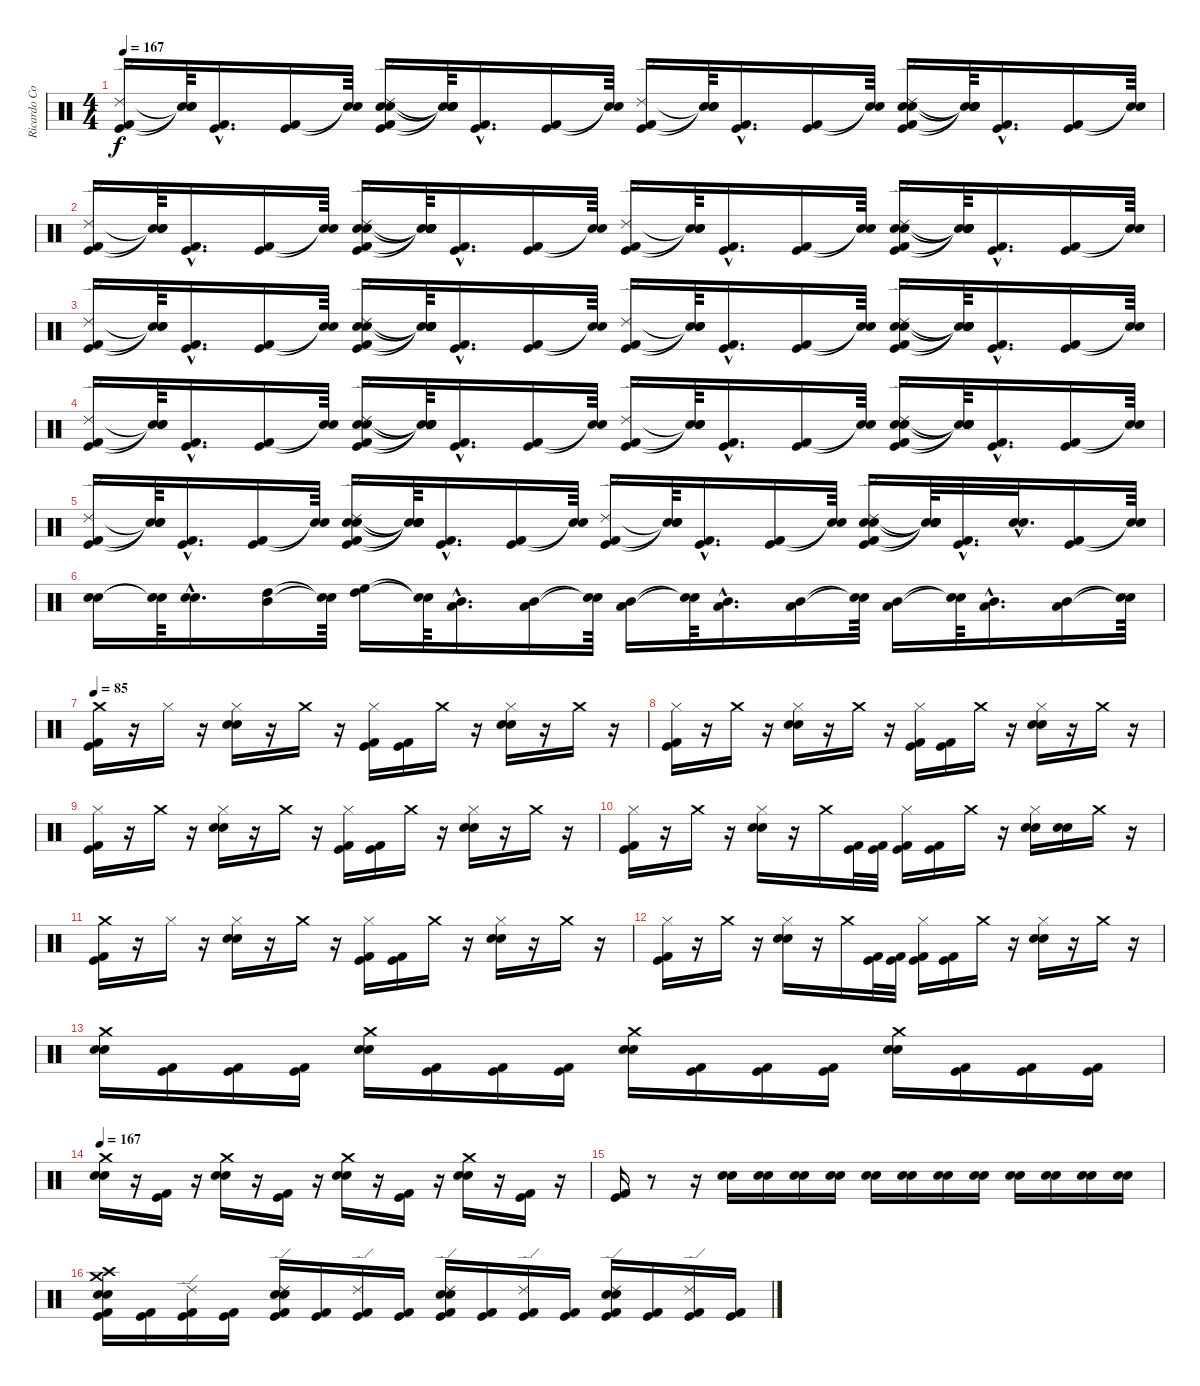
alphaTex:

\track ("Ricardo Confessori" "Ricardo Co") {instrument percussion}
\staff {score}
\articulation defaults
\ts (4 4)
\tempo 167
\clef neutral
\ks c
("Ride (edge) 2" "Kick (hit) 2" "Kick (hit)").16{dy f} ("Snare (hit)"{t} "Snare (hit)"{t} "Snare (hit)"{t}).64 ("Kick (hit) 2"{hac} "Kick (hit)"{hac}).16{d} ("Kick (hit) 2" "Kick (hit)").16 ("Snare (hit)"{t} "Snare (hit)"{t}).64 ("Ride (edge) 2" "Electric Snare (hit)" "Snare (hit) 2" "Kick (hit) 2" "Kick (hit)").16 ("Snare (hit)"{t} "Snare (hit)"{t} "Snare (hit)"{t} "Snare (hit)"{t} "Snare (hit)"{t}).64 ("Kick (hit) 2"{hac} "Kick (hit)"{hac}).16{d} ("Kick (hit) 2" "Kick (hit)").16 ("Snare (hit)"{t} "Snare (hit)"{t}).64 ("Ride (edge) 2" "Kick (hit) 2" "Kick (hit)").16 ("Snare (hit)"{t} "Snare (hit)"{t} "Snare (hit)"{t}).64 ("Kick (hit) 2"{hac} "Kick (hit)"{hac}).16{d} ("Kick (hit) 2" "Kick (hit)").16 ("Snare (hit)"{t} "Snare (hit)"{t}).64 ("Ride (edge) 2" "Electric Snare (hit)" "Snare (hit) 2" "Kick (hit) 2" "Kick (hit)").16 ("Snare (hit)"{t} "Snare (hit)"{t} "Snare (hit)"{t} "Snare (hit)"{t} "Snare (hit)"{t}).64 ("Kick (hit) 2"{hac} "Kick (hit)"{hac}).16{d} ("Kick (hit) 2" "Kick (hit)").16 ("Snare (hit)"{t} "Snare (hit)"{t}).64 |
("Ride (edge) 2" "Kick (hit) 2" "Kick (hit)").16 ("Snare (hit)"{t} "Snare (hit)"{t} "Snare (hit)"{t}).64 ("Kick (hit) 2"{hac} "Kick (hit)"{hac}).16{d} ("Kick (hit) 2" "Kick (hit)").16 ("Snare (hit)"{t} "Snare (hit)"{t}).64 ("Ride (edge) 2" "Electric Snare (hit)" "Snare (hit) 2" "Kick (hit) 2" "Kick (hit)").16 ("Snare (hit)"{t} "Snare (hit)"{t} "Snare (hit)"{t} "Snare (hit)"{t} "Snare (hit)"{t}).64 ("Kick (hit) 2"{hac} "Kick (hit)"{hac}).16{d} ("Kick (hit) 2" "Kick (hit)").16 ("Snare (hit)"{t} "Snare (hit)"{t}).64 ("Ride (edge) 2" "Kick (hit) 2" "Kick (hit)").16 ("Snare (hit)"{t} "Snare (hit)"{t} "Snare (hit)"{t}).64 ("Kick (hit) 2"{hac} "Kick (hit)"{hac}).16{d} ("Kick (hit) 2" "Kick (hit)").16 ("Snare (hit)"{t} "Snare (hit)"{t}).64 ("Ride (edge) 2" "Electric Snare (hit)" "Snare (hit) 2" "Kick (hit) 2" "Kick (hit)").16 ("Snare (hit)"{t} "Snare (hit)"{t} "Snare (hit)"{t} "Snare (hit)"{t} "Snare (hit)"{t}).64 ("Kick (hit) 2"{hac} "Kick (hit)"{hac}).16{d} ("Kick (hit) 2" "Kick (hit)").16 ("Snare (hit)"{t} "Snare (hit)"{t}).64 |
("Ride (edge) 2" "Kick (hit) 2" "Kick (hit)").16 ("Snare (hit)"{t} "Snare (hit)"{t} "Snare (hit)"{t}).64 ("Kick (hit) 2"{hac} "Kick (hit)"{hac}).16{d} ("Kick (hit) 2" "Kick (hit)").16 ("Snare (hit)"{t} "Snare (hit)"{t}).64 ("Ride (edge) 2" "Electric Snare (hit)" "Snare (hit) 2" "Kick (hit) 2" "Kick (hit)").16 ("Snare (hit)"{t} "Snare (hit)"{t} "Snare (hit)"{t} "Snare (hit)"{t} "Snare (hit)"{t}).64 ("Kick (hit) 2"{hac} "Kick (hit)"{hac}).16{d} ("Kick (hit) 2" "Kick (hit)").16 ("Snare (hit)"{t} "Snare (hit)"{t}).64 ("Ride (edge) 2" "Kick (hit) 2" "Kick (hit)").16 ("Snare (hit)"{t} "Snare (hit)"{t} "Snare (hit)"{t}).64 ("Kick (hit) 2"{hac} "Kick (hit)"{hac}).16{d} ("Kick (hit) 2" "Kick (hit)").16 ("Snare (hit)"{t} "Snare (hit)"{t}).64 ("Ride (edge) 2" "Electric Snare (hit)" "Snare (hit) 2" "Kick (hit) 2" "Kick (hit)").16 ("Snare (hit)"{t} "Snare (hit)"{t} "Snare (hit)"{t} "Snare (hit)"{t} "Snare (hit)"{t}).64 ("Kick (hit) 2"{hac} "Kick (hit)"{hac}).16{d} ("Kick (hit) 2" "Kick (hit)").16 ("Snare (hit)"{t} "Snare (hit)"{t}).64 |
("Ride (edge) 2" "Kick (hit) 2" "Kick (hit)").16 ("Snare (hit)"{t} "Snare (hit)"{t} "Snare (hit)"{t}).64 ("Kick (hit) 2"{hac} "Kick (hit)"{hac}).16{d} ("Kick (hit) 2" "Kick (hit)").16 ("Snare (hit)"{t} "Snare (hit)"{t}).64 ("Ride (edge) 2" "Electric Snare (hit)" "Snare (hit) 2" "Kick (hit) 2" "Kick (hit)").16 ("Snare (hit)"{t} "Snare (hit)"{t} "Snare (hit)"{t} "Snare (hit)"{t} "Snare (hit)"{t}).64 ("Kick (hit) 2"{hac} "Kick (hit)"{hac}).16{d} ("Kick (hit) 2" "Kick (hit)").16 ("Snare (hit)"{t} "Snare (hit)"{t}).64 ("Ride (edge) 2" "Kick (hit) 2" "Kick (hit)").16 ("Snare (hit)"{t} "Snare (hit)"{t} "Snare (hit)"{t}).64 ("Kick (hit) 2"{hac} "Kick (hit)"{hac}).16{d} ("Kick (hit) 2" "Kick (hit)").16 ("Snare (hit)"{t} "Snare (hit)"{t}).64 ("Ride (edge) 2" "Electric Snare (hit)" "Snare (hit) 2" "Kick (hit) 2" "Kick (hit)").16 ("Snare (hit)"{t} "Snare (hit)"{t} "Snare (hit)"{t} "Snare (hit)"{t} "Snare (hit)"{t}).64 ("Kick (hit) 2"{hac} "Kick (hit)"{hac}).16{d} ("Kick (hit) 2" "Kick (hit)").16 ("Snare (hit)"{t} "Snare (hit)"{t}).64 |
("Ride (edge) 2" "Kick (hit) 2" "Kick (hit)").16 ("Snare (hit)"{t} "Snare (hit)"{t} "Snare (hit)"{t}).64 ("Kick (hit) 2"{hac} "Kick (hit)"{hac}).16{d} ("Kick (hit) 2" "Kick (hit)").16 ("Snare (hit)"{t} "Snare (hit)"{t}).64 ("Ride (edge) 2" "Electric Snare (hit)" "Snare (hit) 2" "Kick (hit) 2" "Kick (hit)").16 ("Snare (hit)"{t} "Snare (hit)"{t} "Snare (hit)"{t} "Snare (hit)"{t} "Snare (hit)"{t}).64 ("Kick (hit) 2"{hac} "Kick (hit)"{hac}).16{d} ("Kick (hit) 2" "Kick (hit)").16 ("Snare (hit)"{t} "Snare (hit)"{t}).64 ("Ride (edge) 2" "Kick (hit) 2" "Kick (hit)").16 ("Snare (hit)"{t} "Snare (hit)"{t} "Snare (hit)"{t}).64 ("Kick (hit) 2"{hac} "Kick (hit)"{hac}).16{d} ("Kick (hit) 2" "Kick (hit)").16 ("Snare (hit)"{t} "Snare (hit)"{t}).64 ("Snare (hit) 2" "Electric Snare (hit)" "Ride (edge) 2" "Kick (hit) 2" "Kick (hit)").16 ("Snare (hit)"{t} "Snare (hit)"{t} "Snare (hit)"{t} "Snare (hit)"{t} "Snare (hit)"{t}).64 ("Kick (hit) 2"{hac} "Kick (hit)"{hac}).32{d} ("Electric Snare (hit)"{hac} "Snare (hit) 2"{hac}).32{d} ("Kick (hit) 2" "Kick (hit)").16 ("Snare (hit)"{t} "Snare (hit)"{t}).64 |
("Electric Snare (hit)" "Snare (hit) 2").16 ("Snare (hit)"{t} "Snare (hit)"{t}).64 ("Electric Snare (hit)"{hac} "Snare (hit) 2"{hac}).16{d} ("High Tom (hit)" "Mid Tom (hit)").16 ("Snare (hit)"{t} "Snare (hit)"{t}).64 ("High Floor Tom (hit)" "High Tom (hit)").16 ("Snare (hit)"{t} "Snare (hit)"{t}).64 ("Mid Tom (hit)"{hac} "Low Tom (hit)"{hac}).16{d} ("Mid Tom (hit)" "Low Tom (hit)").16 ("Snare (hit)"{t} "Snare (hit)"{t}).64 ("Mid Tom (hit)" "Low Tom (hit)").16 ("Snare (hit)"{t} "Snare (hit)"{t}).64 ("Mid Tom (hit)"{hac} "Low Tom (hit)"{hac}).16{d} ("Mid Tom (hit)" "Low Tom (hit)").16 ("Snare (hit)"{t} "Snare (hit)"{t}).64 ("Mid Tom (hit)" "Low Tom (hit)").16 ("Snare (hit)"{t} "Snare (hit)"{t}).64 ("Mid Tom (hit)"{hac} "Low Tom (hit)"{hac}).16{d} ("Mid Tom (hit)" "Low Tom (hit)").16 ("Snare (hit)"{t} "Snare (hit)"{t}).64 |
\tempo 85
("Kick (hit) 2" "Kick (hit)" "Crash medium (hit)").16 r.16 "Hi-Hat (closed)".16 r.16 ("Electric Snare (hit)" "Snare (hit) 2" "Hi-Hat (closed)").16 r.16 "Crash medium (hit)".16 r.16 ("Kick (hit) 2" "Kick (hit)" "Hi-Hat (closed)").16 ("Kick (hit) 2" "Kick (hit)").16 "Crash medium (hit)".16 r.16 ("Electric Snare (hit)" "Snare (hit) 2" "Hi-Hat (closed)").16 r.16 "Crash medium (hit)".16 r.16 |
("Kick (hit) 2" "Hi-Hat (closed)" "Kick (hit)").16 r.16 "Crash medium (hit)".16 r.16 ("Hi-Hat (closed)" "Electric Snare (hit)" "Snare (hit) 2").16 r.16 "Crash medium (hit)".16 r.16 ("Hi-Hat (closed)" "Kick (hit) 2" "Kick (hit)").16 ("Kick (hit) 2" "Kick (hit)").16 "Crash medium (hit)".16 r.16 ("Hi-Hat (closed)" "Electric Snare (hit)" "Snare (hit) 2").16 r.16 "Crash medium (hit)".16 r.16 |
("Kick (hit) 2" "Hi-Hat (closed)" "Kick (hit)").16 r.16 "Crash medium (hit)".16 r.16 ("Hi-Hat (closed)" "Electric Snare (hit)" "Snare (hit) 2").16 r.16 "Crash medium (hit)".16 r.16 ("Hi-Hat (closed)" "Kick (hit) 2" "Kick (hit)").16 ("Kick (hit) 2" "Kick (hit)").16 "Crash medium (hit)".16 r.16 ("Hi-Hat (closed)" "Electric Snare (hit)" "Snare (hit) 2").16 r.16 "Crash medium (hit)".16 r.16 |
("Kick (hit) 2" "Hi-Hat (closed)" "Kick (hit)").16 r.16 "Crash medium (hit)".16 r.16 ("Hi-Hat (closed)" "Electric Snare (hit)" "Snare (hit) 2").16 r.16 "Crash medium (hit)".16 ("Kick (hit) 2" "Kick (hit)").32 ("Kick (hit) 2" "Kick (hit)").32 ("Hi-Hat (closed)" "Kick (hit) 2" "Kick (hit)").16 ("Kick (hit) 2" "Kick (hit)").16 "Crash medium (hit)".16 r.16 ("Hi-Hat (closed)" "Electric Snare (hit)" "Snare (hit) 2").16 ("Electric Snare (hit)" "Snare (hit) 2").16 "Crash medium (hit)".16 r.16 |
("Crash medium (hit)" "Kick (hit) 2" "Kick (hit)").16 r.16 "Hi-Hat (closed)".16 r.16 ("Hi-Hat (closed)" "Electric Snare (hit)" "Snare (hit) 2").16 r.16 "Crash medium (hit)".16 r.16 ("Hi-Hat (closed)" "Kick (hit) 2" "Kick (hit)").16 ("Kick (hit) 2" "Kick (hit)").16 "Crash medium (hit)".16 r.16 ("Hi-Hat (closed)" "Electric Snare (hit)" "Snare (hit) 2").16 r.16 "Crash medium (hit)".16 r.16 |
("Kick (hit) 2" "Hi-Hat (closed)" "Kick (hit)").16 r.16 "Crash medium (hit)".16 r.16 ("Hi-Hat (closed)" "Electric Snare (hit)" "Snare (hit) 2").16 r.16 "Crash medium (hit)".16 ("Kick (hit) 2" "Kick (hit)").32 ("Kick (hit) 2" "Kick (hit)").32 ("Hi-Hat (closed)" "Kick (hit) 2" "Kick (hit)").16 ("Kick (hit) 2" "Kick (hit)").16 "Crash medium (hit)".16 r.16 ("Hi-Hat (closed)" "Electric Snare (hit)" "Snare (hit) 2").16 r.16 "Crash medium (hit)".16 r.16 |
("Crash medium (hit)" "Electric Snare (hit)" "Snare (hit) 2").16 ("Kick (hit) 2" "Kick (hit)").16 ("Kick (hit) 2" "Kick (hit)").16 ("Kick (hit) 2" "Kick (hit)").16 ("Crash medium (hit)" "Electric Snare (hit)" "Snare (hit) 2").16 ("Kick (hit) 2" "Kick (hit)").16 ("Kick (hit) 2" "Kick (hit)").16 ("Kick (hit) 2" "Kick (hit)").16 ("Crash medium (hit)" "Electric Snare (hit)" "Snare (hit) 2").16 ("Kick (hit) 2" "Kick (hit)").16 ("Kick (hit) 2" "Kick (hit)").16 ("Kick (hit) 2" "Kick (hit)").16 ("Crash medium (hit)" "Electric Snare (hit)" "Snare (hit) 2").16 ("Kick (hit) 2" "Kick (hit)").16 ("Kick (hit) 2" "Kick (hit)").16 ("Kick (hit) 2" "Kick (hit)").16 |
\tempo 167
("Crash medium (hit)" "Electric Snare (hit)" "Snare (hit) 2").16 r.16 ("Kick (hit) 2" "Kick (hit)").16 r.16 ("Crash medium (hit)" "Electric Snare (hit)" "Snare (hit) 2").16 r.16 ("Kick (hit) 2" "Kick (hit)").16 r.16 ("Crash medium (hit)" "Electric Snare (hit)" "Snare (hit) 2").16 r.16 ("Kick (hit) 2" "Kick (hit)").16 r.16 ("Crash medium (hit)" "Electric Snare (hit)" "Snare (hit) 2").16 r.16 ("Kick (hit) 2" "Kick (hit)").16 r.16 |
("Kick (hit) 2" "Kick (hit)").16 r.8 r.16 ("Electric Snare (hit)" "Snare (hit) 2").16 ("Electric Snare (hit)" "Snare (hit) 2").16 ("Electric Snare (hit)" "Snare (hit) 2").16 ("Electric Snare (hit)" "Snare (hit) 2").16 ("Electric Snare (hit)" "Snare (hit) 2").16 ("Electric Snare (hit)" "Snare (hit) 2").16 ("Electric Snare (hit)" "Snare (hit) 2").16 ("Electric Snare (hit)" "Snare (hit) 2").16 ("Snare (hit) 2" "Electric Snare (hit)").16 ("Snare (hit) 2" "Electric Snare (hit)").16 ("Snare (hit) 2" "Electric Snare (hit)").16 ("Snare (hit) 2" "Electric Snare (hit)").16 |
("Crash high (hit)" "Crash medium (hit)" "Electric Snare (hit)" "Snare (hit) 2" "Kick (hit) 2" "Kick (hit)").16 ("Kick (hit) 2" "Kick (hit)").16 ("Ride (edge) 2" "Kick (hit) 2" "Kick (hit)").16 ("Kick (hit) 2" "Kick (hit)").16 ("Electric Snare (hit)" "Snare (hit) 2" "Ride (edge) 2" "Kick (hit) 2" "Kick (hit)").16 ("Kick (hit) 2" "Kick (hit)").16 ("Ride (edge) 2" "Kick (hit) 2" "Kick (hit)").16 ("Kick (hit) 2" "Kick (hit)").16 ("Snare (hit) 2" "Electric Snare (hit)" "Ride (edge) 2" "Kick (hit) 2" "Kick (hit)").16 ("Kick (hit) 2" "Kick (hit)").16 ("Ride (edge) 2" "Kick (hit) 2" "Kick (hit)").16 ("Kick (hit) 2" "Kick (hit)").16 ("Electric Snare (hit)" "Snare (hit) 2" "Ride (edge) 2" "Kick (hit) 2" "Kick (hit)").16 ("Kick (hit) 2" "Kick (hit)").16 ("Ride (edge) 2" "Kick (hit) 2" "Kick (hit)").16 ("Kick (hit) 2" "Kick (hit)").16
